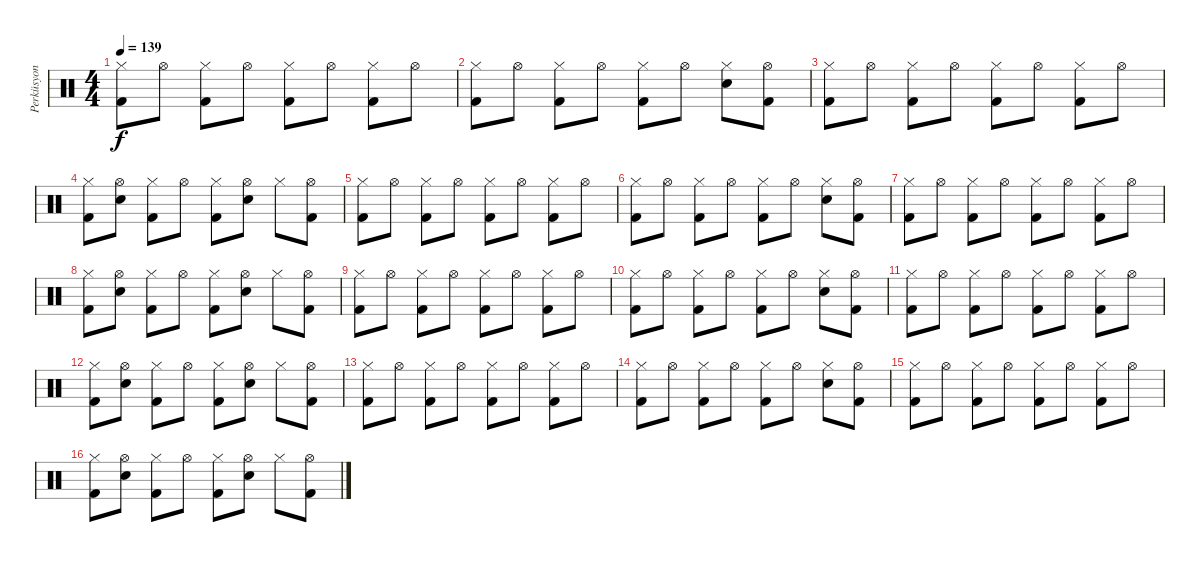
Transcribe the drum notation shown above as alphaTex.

\track ("Perküsyon" "Perküsyon") {instrument percussion}
\staff {score}
\articulation defaults
\ts (4 4)
\tempo 139
\clef neutral
\ks c
("Hi-Hat (closed)" "Kick (hit) 2").8{dy f} "Hi-Hat (open)".8 ("Hi-Hat (closed)" "Kick (hit) 2").8 "Hi-Hat (open)".8 ("Hi-Hat (closed)" "Kick (hit) 2").8 "Hi-Hat (open)".8 ("Hi-Hat (closed)" "Kick (hit) 2").8 "Hi-Hat (open)".8 |
("Hi-Hat (closed)" "Kick (hit) 2").8 "Hi-Hat (open)".8 ("Hi-Hat (closed)" "Kick (hit) 2").8 "Hi-Hat (open)".8 ("Hi-Hat (closed)" "Kick (hit) 2").8 "Hi-Hat (open)".8 ("Hi-Hat (closed)" "Snare (hit) 2").8 ("Hi-Hat (open)" "Kick (hit) 2").8 |
("Hi-Hat (closed)" "Kick (hit) 2").8 "Hi-Hat (open)".8 ("Hi-Hat (closed)" "Kick (hit) 2").8 "Hi-Hat (open)".8 ("Hi-Hat (closed)" "Kick (hit) 2").8 "Hi-Hat (open)".8 ("Hi-Hat (closed)" "Kick (hit) 2").8 "Hi-Hat (open)".8 |
("Hi-Hat (closed)" "Kick (hit) 2").8 ("Hi-Hat (open)" "Snare (hit) 2").8 ("Hi-Hat (closed)" "Kick (hit) 2").8 "Hi-Hat (open)".8 ("Hi-Hat (closed)" "Kick (hit) 2").8 ("Hi-Hat (open)" "Snare (hit) 2").8 "Hi-Hat (closed)".8 ("Hi-Hat (open)" "Kick (hit) 2").8 |
("Hi-Hat (closed)" "Kick (hit) 2").8 "Hi-Hat (open)".8 ("Hi-Hat (closed)" "Kick (hit) 2").8 "Hi-Hat (open)".8 ("Hi-Hat (closed)" "Kick (hit) 2").8 "Hi-Hat (open)".8 ("Hi-Hat (closed)" "Kick (hit) 2").8 "Hi-Hat (open)".8 |
("Hi-Hat (closed)" "Kick (hit) 2").8 "Hi-Hat (open)".8 ("Hi-Hat (closed)" "Kick (hit) 2").8 "Hi-Hat (open)".8 ("Hi-Hat (closed)" "Kick (hit) 2").8 "Hi-Hat (open)".8 ("Hi-Hat (closed)" "Snare (hit) 2").8 ("Hi-Hat (open)" "Kick (hit) 2").8 |
("Hi-Hat (closed)" "Kick (hit) 2").8 "Hi-Hat (open)".8 ("Hi-Hat (closed)" "Kick (hit) 2").8 "Hi-Hat (open)".8 ("Hi-Hat (closed)" "Kick (hit) 2").8 "Hi-Hat (open)".8 ("Hi-Hat (closed)" "Kick (hit) 2").8 "Hi-Hat (open)".8 |
("Hi-Hat (closed)" "Kick (hit) 2").8 ("Hi-Hat (open)" "Snare (hit) 2").8 ("Hi-Hat (closed)" "Kick (hit) 2").8 "Hi-Hat (open)".8 ("Hi-Hat (closed)" "Kick (hit) 2").8 ("Hi-Hat (open)" "Snare (hit) 2").8 "Hi-Hat (closed)".8 ("Hi-Hat (open)" "Kick (hit) 2").8 |
("Hi-Hat (closed)" "Kick (hit) 2").8 "Hi-Hat (open)".8 ("Hi-Hat (closed)" "Kick (hit) 2").8 "Hi-Hat (open)".8 ("Hi-Hat (closed)" "Kick (hit) 2").8 "Hi-Hat (open)".8 ("Hi-Hat (closed)" "Kick (hit) 2").8 "Hi-Hat (open)".8 |
("Hi-Hat (closed)" "Kick (hit) 2").8 "Hi-Hat (open)".8 ("Hi-Hat (closed)" "Kick (hit) 2").8 "Hi-Hat (open)".8 ("Hi-Hat (closed)" "Kick (hit) 2").8 "Hi-Hat (open)".8 ("Hi-Hat (closed)" "Snare (hit) 2").8 ("Hi-Hat (open)" "Kick (hit) 2").8 |
("Hi-Hat (closed)" "Kick (hit) 2").8 "Hi-Hat (open)".8 ("Hi-Hat (closed)" "Kick (hit) 2").8 "Hi-Hat (open)".8 ("Hi-Hat (closed)" "Kick (hit) 2").8 "Hi-Hat (open)".8 ("Hi-Hat (closed)" "Kick (hit) 2").8 "Hi-Hat (open)".8 |
("Hi-Hat (closed)" "Kick (hit) 2").8 ("Hi-Hat (open)" "Snare (hit) 2").8 ("Hi-Hat (closed)" "Kick (hit) 2").8 "Hi-Hat (open)".8 ("Hi-Hat (closed)" "Kick (hit) 2").8 ("Hi-Hat (open)" "Snare (hit) 2").8 "Hi-Hat (closed)".8 ("Hi-Hat (open)" "Kick (hit) 2").8 |
("Hi-Hat (closed)" "Kick (hit) 2").8 "Hi-Hat (open)".8 ("Hi-Hat (closed)" "Kick (hit) 2").8 "Hi-Hat (open)".8 ("Hi-Hat (closed)" "Kick (hit) 2").8 "Hi-Hat (open)".8 ("Hi-Hat (closed)" "Kick (hit) 2").8 "Hi-Hat (open)".8 |
("Hi-Hat (closed)" "Kick (hit) 2").8 "Hi-Hat (open)".8 ("Hi-Hat (closed)" "Kick (hit) 2").8 "Hi-Hat (open)".8 ("Hi-Hat (closed)" "Kick (hit) 2").8 "Hi-Hat (open)".8 ("Hi-Hat (closed)" "Snare (hit) 2").8 ("Hi-Hat (open)" "Kick (hit) 2").8 |
("Hi-Hat (closed)" "Kick (hit) 2").8 "Hi-Hat (open)".8 ("Hi-Hat (closed)" "Kick (hit) 2").8 "Hi-Hat (open)".8 ("Hi-Hat (closed)" "Kick (hit) 2").8 "Hi-Hat (open)".8 ("Hi-Hat (closed)" "Kick (hit) 2").8 "Hi-Hat (open)".8 |
("Hi-Hat (closed)" "Kick (hit) 2").8 ("Hi-Hat (open)" "Snare (hit) 2").8 ("Hi-Hat (closed)" "Kick (hit) 2").8 "Hi-Hat (open)".8 ("Hi-Hat (closed)" "Kick (hit) 2").8 ("Hi-Hat (open)" "Snare (hit) 2").8 "Hi-Hat (closed)".8 ("Hi-Hat (open)" "Kick (hit) 2").8
